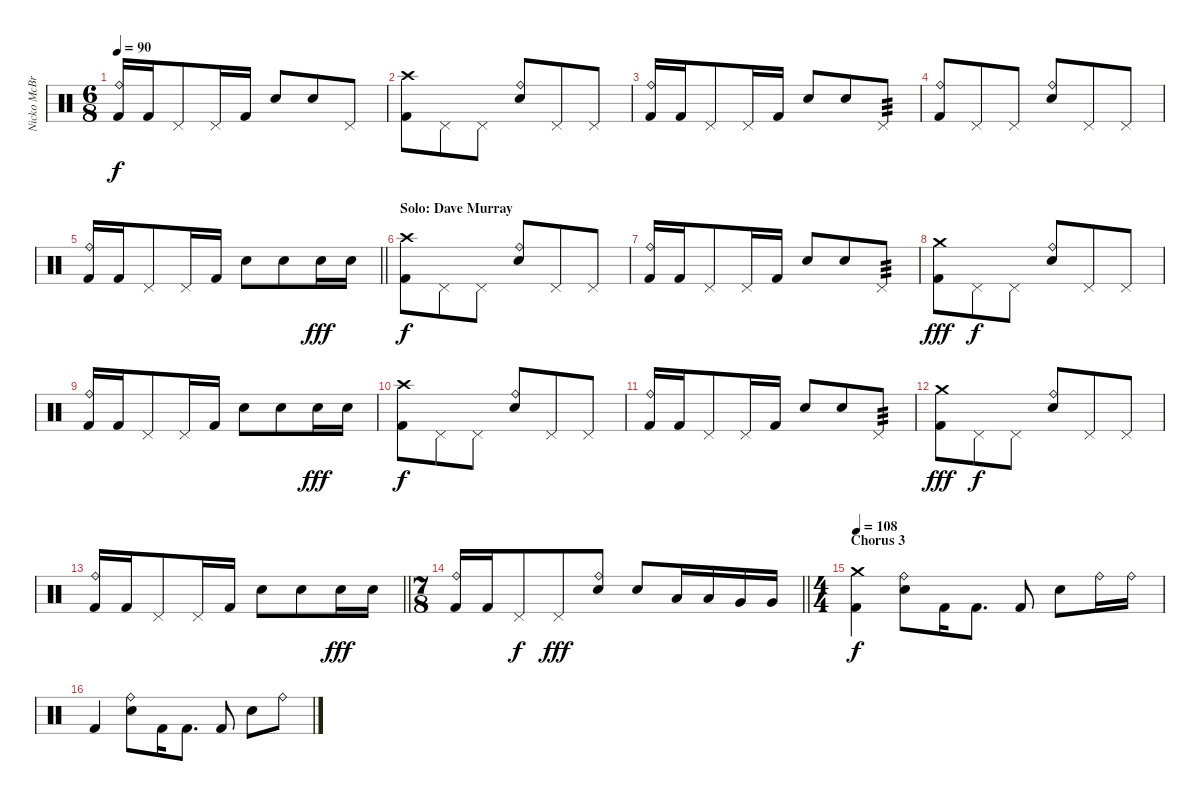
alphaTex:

\track ("Nicko McBrain" "Nicko McBr") {instrument percussion}
\staff {score}
\articulation defaults
\ts (6 8)
\tempo 90
\clef neutral
\ks c
("Ride (bell)" "Kick (hit) 2").16{dy f} "Kick (hit) 2".16 "Pedal Hi-Hat (hit)".8 "Pedal Hi-Hat (hit)".16 "Kick (hit) 2".16 "Electric Snare (hit)".8 "Electric Snare (hit)".8 "Pedal Hi-Hat (hit)".8 |
("Crash high (hit)" "Kick (hit) 2").8 "Pedal Hi-Hat (hit)".8 "Pedal Hi-Hat (hit)".8 ("Ride (bell)" "Electric Snare (hit)").8 "Pedal Hi-Hat (hit)".8 "Pedal Hi-Hat (hit)".8 |
("Ride (bell)" "Kick (hit) 2").16 "Kick (hit) 2".16 "Pedal Hi-Hat (hit)".8 "Pedal Hi-Hat (hit)".16 "Kick (hit) 2".16 "Electric Snare (hit)".8 "Electric Snare (hit)".8 "Pedal Hi-Hat (hit)".8{tp 3} |
("Ride (bell)" "Kick (hit) 2").8 "Pedal Hi-Hat (hit)".8 "Pedal Hi-Hat (hit)".8 ("Ride (bell)" "Electric Snare (hit)").8 "Pedal Hi-Hat (hit)".8 "Pedal Hi-Hat (hit)".8 |
\barLineRight lightlight
("Ride (bell)" "Kick (hit) 2").16 "Kick (hit) 2".16 "Pedal Hi-Hat (hit)".8 "Pedal Hi-Hat (hit)".16 "Kick (hit) 2".16 "Electric Snare (hit)".8 "Electric Snare (hit)".8 "Electric Snare (hit)".16{dy fff} "Electric Snare (hit)".16 |
\section ("" "Solo: Dave Murray")
("Crash high (hit)" "Kick (hit) 2").8{dy f} "Pedal Hi-Hat (hit)".8 "Pedal Hi-Hat (hit)".8 ("Ride (bell)" "Electric Snare (hit)").8 "Pedal Hi-Hat (hit)".8 "Pedal Hi-Hat (hit)".8 |
("Ride (bell)" "Kick (hit) 2").16 "Kick (hit) 2".16 "Pedal Hi-Hat (hit)".8 "Pedal Hi-Hat (hit)".16 "Kick (hit) 2".16 "Electric Snare (hit)".8 "Electric Snare (hit)".8 "Pedal Hi-Hat (hit)".8{tp 3} |
("Crash medium (hit)" "Kick (hit) 2").8{dy fff} "Pedal Hi-Hat (hit)".8{dy f} "Pedal Hi-Hat (hit)".8 ("Ride (bell)" "Electric Snare (hit)").8 "Pedal Hi-Hat (hit)".8 "Pedal Hi-Hat (hit)".8 |
("Ride (bell)" "Kick (hit) 2").16 "Kick (hit) 2".16 "Pedal Hi-Hat (hit)".8 "Pedal Hi-Hat (hit)".16 "Kick (hit) 2".16 "Electric Snare (hit)".8 "Electric Snare (hit)".8 "Electric Snare (hit)".16{dy fff} "Electric Snare (hit)".16 |
("Crash high (hit)" "Kick (hit) 2").8{dy f} "Pedal Hi-Hat (hit)".8 "Pedal Hi-Hat (hit)".8 ("Ride (bell)" "Electric Snare (hit)").8 "Pedal Hi-Hat (hit)".8 "Pedal Hi-Hat (hit)".8 |
("Ride (bell)" "Kick (hit) 2").16 "Kick (hit) 2".16 "Pedal Hi-Hat (hit)".8 "Pedal Hi-Hat (hit)".16 "Kick (hit) 2".16 "Electric Snare (hit)".8 "Electric Snare (hit)".8 "Pedal Hi-Hat (hit)".8{tp 3} |
("Crash medium (hit)" "Kick (hit) 2").8{dy fff} "Pedal Hi-Hat (hit)".8{dy f} "Pedal Hi-Hat (hit)".8 ("Ride (bell)" "Electric Snare (hit)").8 "Pedal Hi-Hat (hit)".8 "Pedal Hi-Hat (hit)".8 |
\barLineRight lightlight
("Ride (bell)" "Kick (hit) 2").16 "Kick (hit) 2".16 "Pedal Hi-Hat (hit)".8 "Pedal Hi-Hat (hit)".16 "Kick (hit) 2".16 "Electric Snare (hit)".8 "Electric Snare (hit)".8 "Electric Snare (hit)".16{dy fff} "Electric Snare (hit)".16 |
\ts (7 8)
\barLineRight lightlight
("Ride (bell)" "Kick (hit) 2").16 "Kick (hit) 2".16 "Pedal Hi-Hat (hit)".8{dy f} "Pedal Hi-Hat (hit)".8{dy fff} ("Ride (bell)" "Electric Snare (hit)").8 "Electric Snare (hit)".8 "Low Tom (hit)".16 "Low Tom (hit)".16 "Very Low Tom (hit)".16 "Very Low Tom (hit)".16 |
\ts (4 4)
\section ("" "Chorus 3")
\tempo 108
("Crash medium (hit)" "Kick (hit) 2").4{dy f} ("Ride (bell)" "Electric Snare (hit)").8 "Kick (hit) 2".16 "Kick (hit) 2".8{d} "Kick (hit) 2".8 "Electric Snare (hit)".8 "Ride (bell)".16 "Ride (bell)".16 |
"Kick (hit) 2".4 ("Ride (bell)" "Electric Snare (hit)").8 "Kick (hit) 2".16 "Kick (hit) 2".8{d} "Kick (hit) 2".8 "Electric Snare (hit)".8 "Ride (bell)".8
